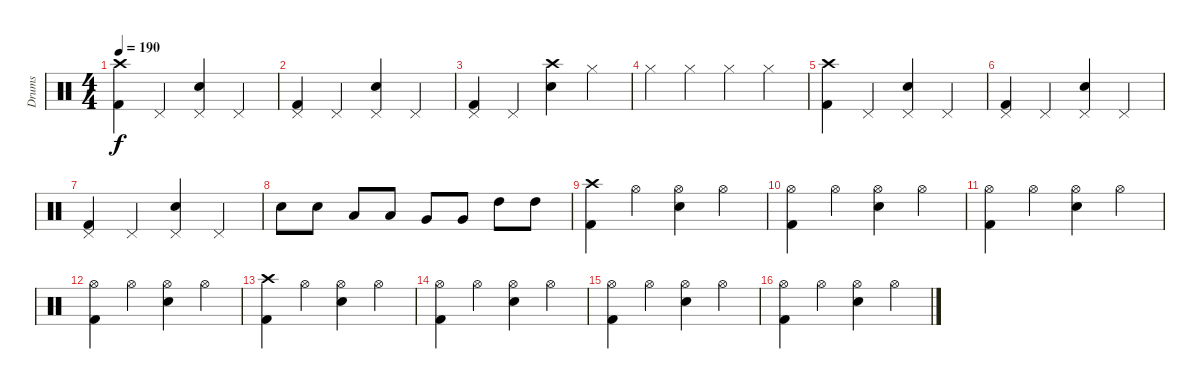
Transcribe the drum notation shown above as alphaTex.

\track ("Drums" "Drums") {instrument percussion}
\staff {score}
\articulation defaults
\ts (4 4)
\tempo 190
\clef neutral
\ks c
("Crash high (hit)" "Kick (hit) 2").4{dy f} "Pedal Hi-Hat (hit)".4 ("Pedal Hi-Hat (hit)" "Electric Snare (hit)").4 "Pedal Hi-Hat (hit)".4 |
("Pedal Hi-Hat (hit)" "Kick (hit) 2").4 "Pedal Hi-Hat (hit)".4 ("Pedal Hi-Hat (hit)" "Electric Snare (hit)").4 "Pedal Hi-Hat (hit)".4 |
("Pedal Hi-Hat (hit)" "Kick (hit) 2").4 "Pedal Hi-Hat (hit)".4 ("Crash high (hit)" "Electric Snare (hit)").4 "Hi-Hat (closed)".4 |
"Hi-Hat (closed)".4 "Hi-Hat (closed)".4 "Hi-Hat (closed)".4 "Hi-Hat (closed)".4 |
("Crash high (hit)" "Kick (hit) 2").4 "Pedal Hi-Hat (hit)".4 ("Pedal Hi-Hat (hit)" "Electric Snare (hit)").4 "Pedal Hi-Hat (hit)".4 |
("Pedal Hi-Hat (hit)" "Kick (hit) 2").4 "Pedal Hi-Hat (hit)".4 ("Pedal Hi-Hat (hit)" "Electric Snare (hit)").4 "Pedal Hi-Hat (hit)".4 |
("Pedal Hi-Hat (hit)" "Kick (hit) 2").4 "Pedal Hi-Hat (hit)".4 ("Pedal Hi-Hat (hit)" "Electric Snare (hit)").4 "Pedal Hi-Hat (hit)".4 |
"Electric Snare (hit)".8 "Electric Snare (hit)".8 "Low Tom (hit)".8 "Low Tom (hit)".8 "Very Low Tom (hit)".8 "Very Low Tom (hit)".8 "High Tom (hit)".8 "High Tom (hit)".8 |
("Crash high (hit)" "Kick (hit) 2").4 "Hi-Hat (open)".4 ("Hi-Hat (open)" "Electric Snare (hit)").4 "Hi-Hat (open)".4 |
("Hi-Hat (open)" "Kick (hit) 2").4 "Hi-Hat (open)".4 ("Hi-Hat (open)" "Electric Snare (hit)").4 "Hi-Hat (open)".4 |
("Hi-Hat (open)" "Kick (hit) 2").4 "Hi-Hat (open)".4 ("Hi-Hat (open)" "Electric Snare (hit)").4 "Hi-Hat (open)".4 |
("Hi-Hat (open)" "Kick (hit) 2").4 "Hi-Hat (open)".4 ("Hi-Hat (open)" "Electric Snare (hit)").4 "Hi-Hat (open)".4 |
("Crash high (hit)" "Kick (hit) 2").4 "Hi-Hat (open)".4 ("Hi-Hat (open)" "Electric Snare (hit)").4 "Hi-Hat (open)".4 |
("Hi-Hat (open)" "Kick (hit) 2").4 "Hi-Hat (open)".4 ("Hi-Hat (open)" "Electric Snare (hit)").4 "Hi-Hat (open)".4 |
("Hi-Hat (open)" "Kick (hit) 2").4 "Hi-Hat (open)".4 ("Hi-Hat (open)" "Electric Snare (hit)").4 "Hi-Hat (open)".4 |
("Hi-Hat (open)" "Kick (hit) 2").4 "Hi-Hat (open)".4 ("Hi-Hat (open)" "Electric Snare (hit)").4 "Hi-Hat (open)".4
